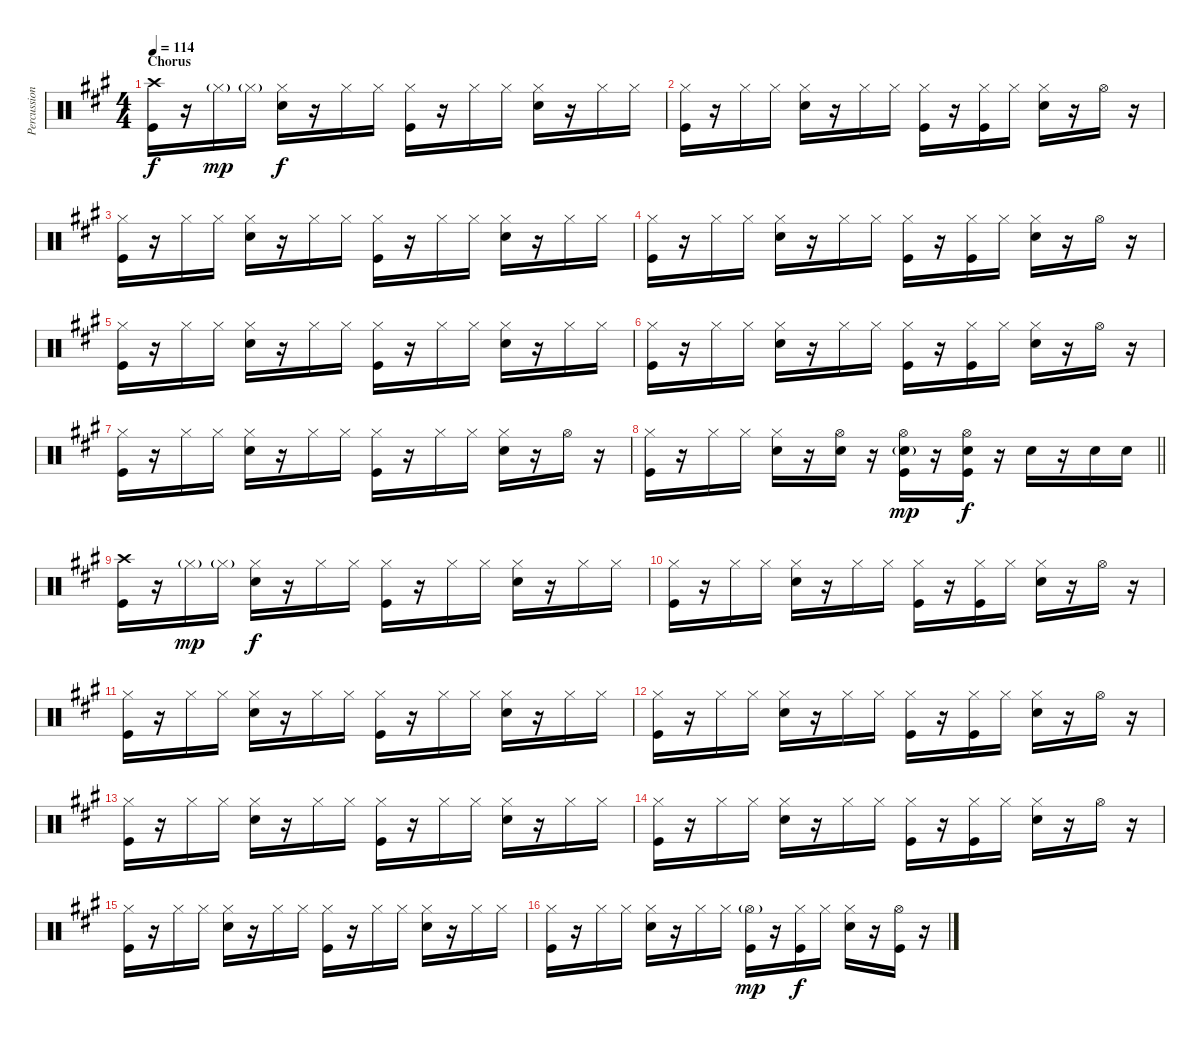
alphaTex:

\track ("Percussion" "Percussion") {instrument percussion}
\staff {score}
\articulation defaults
\ts (4 4)
\section ("" "Chorus")
\tempo 114
\clef neutral
\ks a
("Crash high (hit)" "Kick (hit)").16{dy f} r.16 "Hi-Hat (closed)"{g}.16{dy mp} "Hi-Hat (closed)"{g}.16 ("Hi-Hat (closed)" "Snare (hit) 2").16{dy f} r.16 "Hi-Hat (closed)".16 "Hi-Hat (closed)".16 ("Hi-Hat (closed)" "Kick (hit)").16 r.16 "Hi-Hat (closed)".16 "Hi-Hat (closed)".16 ("Hi-Hat (closed)" "Snare (hit) 2").16 r.16 "Hi-Hat (closed)".16 "Hi-Hat (closed)".16 |
("Hi-Hat (closed)" "Kick (hit)").16 r.16 "Hi-Hat (closed)".16 "Hi-Hat (closed)".16 ("Hi-Hat (closed)" "Snare (hit) 2").16 r.16 "Hi-Hat (closed)".16 "Hi-Hat (closed)".16 ("Hi-Hat (closed)" "Kick (hit)").16 r.16 ("Hi-Hat (closed)" "Kick (hit)").16 "Hi-Hat (closed)".16 ("Hi-Hat (closed)" "Snare (hit) 2").16 r.16 "Hi-Hat (open)".16 r.16 |
("Hi-Hat (closed)" "Kick (hit)").16 r.16 "Hi-Hat (closed)".16 "Hi-Hat (closed)".16 ("Hi-Hat (closed)" "Snare (hit) 2").16 r.16 "Hi-Hat (closed)".16 "Hi-Hat (closed)".16 ("Hi-Hat (closed)" "Kick (hit)").16 r.16 "Hi-Hat (closed)".16 "Hi-Hat (closed)".16 ("Hi-Hat (closed)" "Snare (hit) 2").16 r.16 "Hi-Hat (closed)".16 "Hi-Hat (closed)".16 |
("Hi-Hat (closed)" "Kick (hit)").16 r.16 "Hi-Hat (closed)".16 "Hi-Hat (closed)".16 ("Hi-Hat (closed)" "Snare (hit) 2").16 r.16 "Hi-Hat (closed)".16 "Hi-Hat (closed)".16 ("Hi-Hat (closed)" "Kick (hit)").16 r.16 ("Hi-Hat (closed)" "Kick (hit)").16 "Hi-Hat (closed)".16 ("Hi-Hat (closed)" "Snare (hit) 2").16 r.16 "Hi-Hat (open)".16 r.16 |
("Hi-Hat (closed)" "Kick (hit)").16 r.16 "Hi-Hat (closed)".16 "Hi-Hat (closed)".16 ("Hi-Hat (closed)" "Snare (hit) 2").16 r.16 "Hi-Hat (closed)".16 "Hi-Hat (closed)".16 ("Hi-Hat (closed)" "Kick (hit)").16 r.16 "Hi-Hat (closed)".16 "Hi-Hat (closed)".16 ("Hi-Hat (closed)" "Snare (hit) 2").16 r.16 "Hi-Hat (closed)".16 "Hi-Hat (closed)".16 |
("Hi-Hat (closed)" "Kick (hit)").16 r.16 "Hi-Hat (closed)".16 "Hi-Hat (closed)".16 ("Hi-Hat (closed)" "Snare (hit) 2").16 r.16 "Hi-Hat (closed)".16 "Hi-Hat (closed)".16 ("Hi-Hat (closed)" "Kick (hit)").16 r.16 ("Hi-Hat (closed)" "Kick (hit)").16 "Hi-Hat (closed)".16 ("Hi-Hat (closed)" "Snare (hit) 2").16 r.16 "Hi-Hat (open)".16 r.16 |
("Hi-Hat (closed)" "Kick (hit)").16 r.16 "Hi-Hat (closed)".16 "Hi-Hat (closed)".16 ("Hi-Hat (closed)" "Snare (hit) 2").16 r.16 "Hi-Hat (closed)".16 "Hi-Hat (closed)".16 ("Hi-Hat (closed)" "Kick (hit)").16 r.16 "Hi-Hat (closed)".16 "Hi-Hat (closed)".16 ("Hi-Hat (closed)" "Snare (hit) 2").16 r.16 "Hi-Hat (open)".16 r.16 |
\barLineRight lightlight
("Hi-Hat (closed)" "Kick (hit)").16 r.16 "Hi-Hat (closed)".16 "Hi-Hat (closed)".16 ("Hi-Hat (closed)" "Snare (hit) 2").16 r.16 ("Hi-Hat (open)" "Snare (hit) 2").16 r.16 ("Hi-Hat (open)" "Snare (hit) 2"{g} "Kick (hit)").16{dy mp} r.16 ("Hi-Hat (open)" "Snare (hit) 2" "Kick (hit)").16{dy f} r.16 "Snare (hit) 2".16 r.16 "Snare (hit) 2".16 "Snare (hit) 2".16 |
("Crash high (hit)" "Kick (hit)").16 r.16 "Hi-Hat (closed)"{g}.16{dy mp} "Hi-Hat (closed)"{g}.16 ("Hi-Hat (closed)" "Snare (hit) 2").16{dy f} r.16 "Hi-Hat (closed)".16 "Hi-Hat (closed)".16 ("Hi-Hat (closed)" "Kick (hit)").16 r.16 "Hi-Hat (closed)".16 "Hi-Hat (closed)".16 ("Hi-Hat (closed)" "Snare (hit) 2").16 r.16 "Hi-Hat (closed)".16 "Hi-Hat (closed)".16 |
("Hi-Hat (closed)" "Kick (hit)").16 r.16 "Hi-Hat (closed)".16 "Hi-Hat (closed)".16 ("Hi-Hat (closed)" "Snare (hit) 2").16 r.16 "Hi-Hat (closed)".16 "Hi-Hat (closed)".16 ("Hi-Hat (closed)" "Kick (hit)").16 r.16 ("Hi-Hat (closed)" "Kick (hit)").16 "Hi-Hat (closed)".16 ("Hi-Hat (closed)" "Snare (hit) 2").16 r.16 "Hi-Hat (open)".16 r.16 |
("Hi-Hat (closed)" "Kick (hit)").16 r.16 "Hi-Hat (closed)".16 "Hi-Hat (closed)".16 ("Hi-Hat (closed)" "Snare (hit) 2").16 r.16 "Hi-Hat (closed)".16 "Hi-Hat (closed)".16 ("Hi-Hat (closed)" "Kick (hit)").16 r.16 "Hi-Hat (closed)".16 "Hi-Hat (closed)".16 ("Hi-Hat (closed)" "Snare (hit) 2").16 r.16 "Hi-Hat (closed)".16 "Hi-Hat (closed)".16 |
("Hi-Hat (closed)" "Kick (hit)").16 r.16 "Hi-Hat (closed)".16 "Hi-Hat (closed)".16 ("Hi-Hat (closed)" "Snare (hit) 2").16 r.16 "Hi-Hat (closed)".16 "Hi-Hat (closed)".16 ("Hi-Hat (closed)" "Kick (hit)").16 r.16 ("Hi-Hat (closed)" "Kick (hit)").16 "Hi-Hat (closed)".16 ("Hi-Hat (closed)" "Snare (hit) 2").16 r.16 "Hi-Hat (open)".16 r.16 |
("Hi-Hat (closed)" "Kick (hit)").16 r.16 "Hi-Hat (closed)".16 "Hi-Hat (closed)".16 ("Hi-Hat (closed)" "Snare (hit) 2").16 r.16 "Hi-Hat (closed)".16 "Hi-Hat (closed)".16 ("Hi-Hat (closed)" "Kick (hit)").16 r.16 "Hi-Hat (closed)".16 "Hi-Hat (closed)".16 ("Hi-Hat (closed)" "Snare (hit) 2").16 r.16 "Hi-Hat (closed)".16 "Hi-Hat (closed)".16 |
("Hi-Hat (closed)" "Kick (hit)").16 r.16 "Hi-Hat (closed)".16 "Hi-Hat (closed)".16 ("Hi-Hat (closed)" "Snare (hit) 2").16 r.16 "Hi-Hat (closed)".16 "Hi-Hat (closed)".16 ("Hi-Hat (closed)" "Kick (hit)").16 r.16 ("Hi-Hat (closed)" "Kick (hit)").16 "Hi-Hat (closed)".16 ("Hi-Hat (closed)" "Snare (hit) 2").16 r.16 "Hi-Hat (open)".16 r.16 |
("Hi-Hat (closed)" "Kick (hit)").16 r.16 "Hi-Hat (closed)".16 "Hi-Hat (closed)".16 ("Hi-Hat (closed)" "Snare (hit) 2").16 r.16 "Hi-Hat (closed)".16 "Hi-Hat (closed)".16 ("Hi-Hat (closed)" "Kick (hit)").16 r.16 "Hi-Hat (closed)".16 "Hi-Hat (closed)".16 ("Hi-Hat (closed)" "Snare (hit) 2").16 r.16 "Hi-Hat (closed)".16 "Hi-Hat (closed)".16 |
("Hi-Hat (closed)" "Kick (hit)").16 r.16 "Hi-Hat (closed)".16 "Hi-Hat (closed)".16 ("Hi-Hat (closed)" "Snare (hit) 2").16 r.16 "Hi-Hat (closed)".16 "Hi-Hat (closed)".16 ("Hi-Hat (open)"{g} "Kick (hit)").16{dy mp} r.16 ("Hi-Hat (closed)" "Kick (hit)").16{dy f} "Hi-Hat (closed)".16 ("Hi-Hat (closed)" "Snare (hit) 2").16 r.16 ("Hi-Hat (open)" "Kick (hit)").16 r.16
